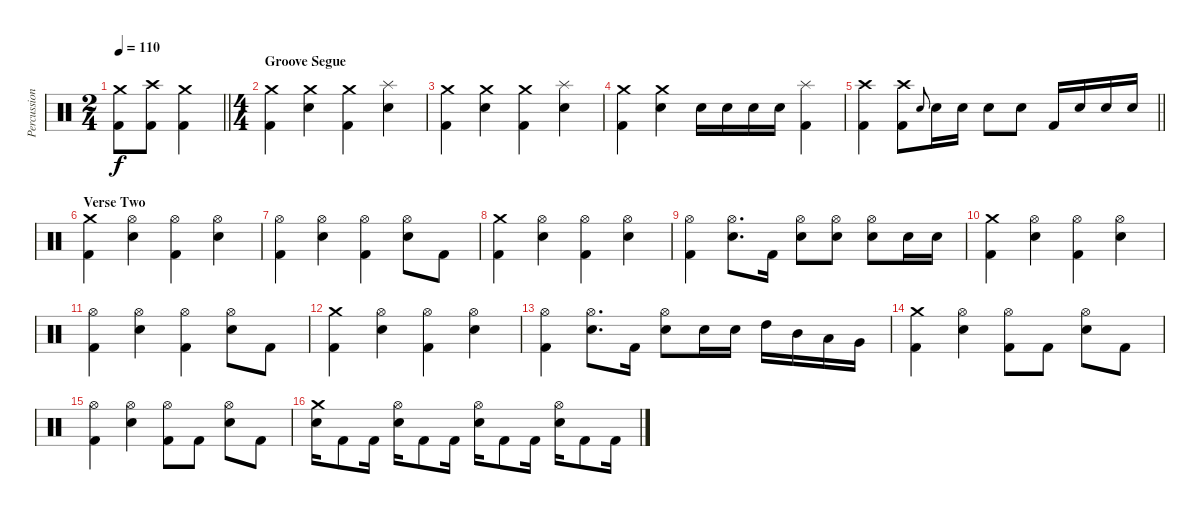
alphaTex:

\track ("Percussion" "Percussion") {instrument percussion}
\staff {score}
\articulation defaults
\ts (2 4)
\tempo 110
\clef neutral
\barLineRight lightlight
\ks c
("Crash medium (hit)" "Kick (hit) 2").8{dy f} ("Crash high (hit)" "Kick (hit) 2").8 ("Crash medium (hit)" "Kick (hit) 2").4 |
\ts (4 4)
\section ("" "Groove Segue")
("Crash medium (hit)" "Kick (hit) 2").4 ("Crash medium (hit)" "Electric Snare (hit)").4 ("Crash medium (hit)" "Kick (hit) 2").4 ("Splash (hit)" "Electric Snare (hit)").4 |
("Crash medium (hit)" "Kick (hit) 2").4 ("Crash medium (hit)" "Electric Snare (hit)").4 ("Crash medium (hit)" "Kick (hit) 2").4 ("Splash (hit)" "Electric Snare (hit)").4 |
("Crash medium (hit)" "Kick (hit) 2").4 ("Crash medium (hit)" "Electric Snare (hit)").4 "Electric Snare (hit)".16 "Electric Snare (hit)".16 "Electric Snare (hit)".16 "Electric Snare (hit)".16 ("Splash (hit)" "Kick (hit) 2").4 |
\barLineRight lightlight
("Crash high (hit)" "Kick (hit) 2").4 ("Crash high (hit)" "Kick (hit) 2").8 "Electric Snare (hit)".8{gr onbeat} "Electric Snare (hit)".16 "Electric Snare (hit)".16 "Electric Snare (hit)".8 "Electric Snare (hit)".8 "Kick (hit) 2".16 "Electric Snare (hit)".16 "Electric Snare (hit)".16 "Electric Snare (hit)".16 |
\section ("" "Verse Two")
("Crash medium (hit)" "Kick (hit) 2").4 ("Hi-Hat (open)" "Electric Snare (hit)").4 ("Hi-Hat (open)" "Kick (hit) 2").4 ("Hi-Hat (open)" "Electric Snare (hit)").4 |
("Hi-Hat (open)" "Kick (hit) 2").4 ("Hi-Hat (open)" "Electric Snare (hit)").4 ("Hi-Hat (open)" "Kick (hit) 2").4 ("Hi-Hat (open)" "Electric Snare (hit)").8 "Kick (hit) 2".8 |
("Crash medium (hit)" "Kick (hit) 2").4 ("Hi-Hat (open)" "Electric Snare (hit)").4 ("Hi-Hat (open)" "Kick (hit) 2").4 ("Hi-Hat (open)" "Electric Snare (hit)").4 |
("Hi-Hat (open)" "Kick (hit) 2").4 ("Hi-Hat (open)" "Electric Snare (hit)").8{d} "Kick (hit) 2".16 ("Hi-Hat (open)" "Electric Snare (hit)").8 ("Hi-Hat (open)" "Electric Snare (hit)").8 ("Hi-Hat (open)" "Electric Snare (hit)").8 "Electric Snare (hit)".16 "Electric Snare (hit)".16 |
("Crash medium (hit)" "Kick (hit) 2").4 ("Hi-Hat (open)" "Electric Snare (hit)").4 ("Hi-Hat (open)" "Kick (hit) 2").4 ("Hi-Hat (open)" "Electric Snare (hit)").4 |
("Hi-Hat (open)" "Kick (hit) 2").4 ("Hi-Hat (open)" "Electric Snare (hit)").4 ("Hi-Hat (open)" "Kick (hit) 2").4 ("Hi-Hat (open)" "Electric Snare (hit)").8 "Kick (hit) 2".8 |
("Crash medium (hit)" "Kick (hit) 2").4 ("Hi-Hat (open)" "Electric Snare (hit)").4 ("Hi-Hat (open)" "Kick (hit) 2").4 ("Hi-Hat (open)" "Electric Snare (hit)").4 |
("Hi-Hat (open)" "Kick (hit) 2").4 ("Hi-Hat (open)" "Electric Snare (hit)").8{d} "Kick (hit) 2".16 ("Hi-Hat (open)" "Electric Snare (hit)").8 "Electric Snare (hit)".16 "Electric Snare (hit)".16 "High Tom (hit)".16 "Mid Tom (hit)".16 "Low Tom (hit)".16 "Very Low Tom (hit)".16 |
("Crash medium (hit)" "Kick (hit) 2").4 ("Hi-Hat (open)" "Electric Snare (hit)").4 ("Hi-Hat (open)" "Kick (hit) 2").8 "Kick (hit) 2".8 ("Hi-Hat (open)" "Electric Snare (hit)").8 "Kick (hit) 2".8 |
("Hi-Hat (open)" "Kick (hit) 2").4 ("Hi-Hat (open)" "Electric Snare (hit)").4 ("Hi-Hat (open)" "Kick (hit) 2").8 "Kick (hit) 2".8 ("Hi-Hat (open)" "Electric Snare (hit)").8 "Kick (hit) 2".8 |
("Crash medium (hit)" "Electric Snare (hit)").16 "Kick (hit) 2".8 "Kick (hit) 2".16 ("Hi-Hat (open)" "Electric Snare (hit)").16 "Kick (hit) 2".8 "Kick (hit) 2".16 ("Hi-Hat (open)" "Electric Snare (hit)").16 "Kick (hit) 2".8 "Kick (hit) 2".16 ("Hi-Hat (open)" "Electric Snare (hit)").16 "Kick (hit) 2".8 "Kick (hit) 2".16
